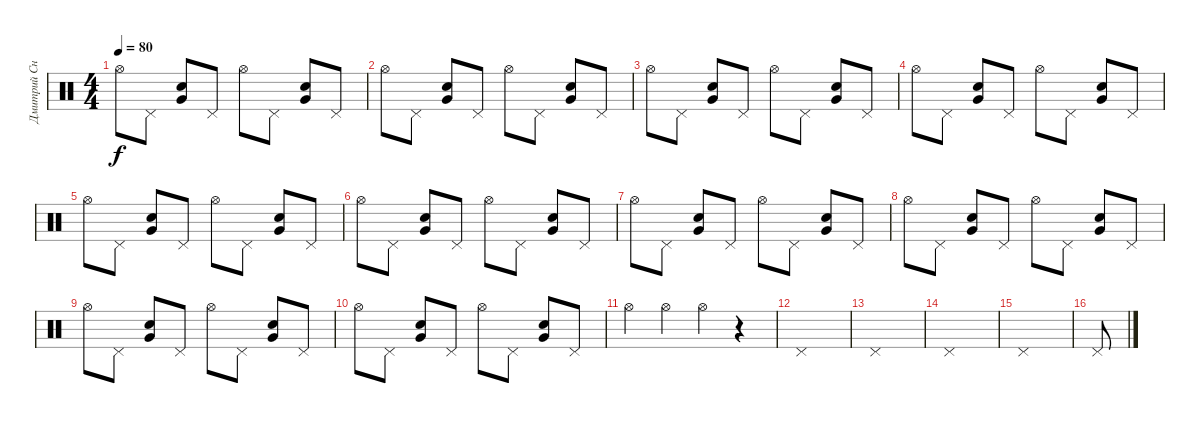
\track ("Дмитрий Снэйк" "Дмитрий Сн") {instrument percussion}
\staff {score}
\articulation defaults
\ts (4 4)
\tempo 80
\clef neutral
\ks c "Hi-Hat (open)".8{dy f} "Pedal Hi-Hat (hit)".8
("Snare (hit) 2" "Very Low Tom (hit)").8 "Pedal Hi-Hat (hit)".8 "Hi-Hat (open)".8 "Pedal Hi-Hat (hit)".8 ("Snare (hit) 2" "Very Low Tom (hit)").8 "Pedal Hi-Hat (hit)".8 |
"Hi-Hat (open)".8 "Pedal Hi-Hat (hit)".8 ("Snare (hit) 2" "Very Low Tom (hit)").8 "Pedal Hi-Hat (hit)".8 "Hi-Hat (open)".8 "Pedal Hi-Hat (hit)".8 ("Snare (hit) 2" "Very Low Tom (hit)").8 "Pedal Hi-Hat (hit)".8 |
"Hi-Hat (open)".8 "Pedal Hi-Hat (hit)".8 ("Snare (hit) 2" "Very Low Tom (hit)").8 "Pedal Hi-Hat (hit)".8 "Hi-Hat (open)".8 "Pedal Hi-Hat (hit)".8 ("Snare (hit) 2" "Very Low Tom (hit)").8 "Pedal Hi-Hat (hit)".8 |
"Hi-Hat (open)".8 "Pedal Hi-Hat (hit)".8 ("Snare (hit) 2" "Very Low Tom (hit)").8 "Pedal Hi-Hat (hit)".8 "Hi-Hat (open)".8 "Pedal Hi-Hat (hit)".8 ("Snare (hit) 2" "Very Low Tom (hit)").8 "Pedal Hi-Hat (hit)".8 |
"Hi-Hat (open)".8 "Pedal Hi-Hat (hit)".8 ("Snare (hit) 2" "Very Low Tom (hit)").8 "Pedal Hi-Hat (hit)".8 "Hi-Hat (open)".8 "Pedal Hi-Hat (hit)".8 ("Snare (hit) 2" "Very Low Tom (hit)").8 "Pedal Hi-Hat (hit)".8 |
"Hi-Hat (open)".8 "Pedal Hi-Hat (hit)".8 ("Snare (hit) 2" "Very Low Tom (hit)").8 "Pedal Hi-Hat (hit)".8 "Hi-Hat (open)".8 "Pedal Hi-Hat (hit)".8 ("Snare (hit) 2" "Very Low Tom (hit)").8 "Pedal Hi-Hat (hit)".8 |
"Hi-Hat (open)".8 "Pedal Hi-Hat (hit)".8 ("Snare (hit) 2" "Very Low Tom (hit)").8 "Pedal Hi-Hat (hit)".8 "Hi-Hat (open)".8 "Pedal Hi-Hat (hit)".8 ("Snare (hit) 2" "Very Low Tom (hit)").8 "Pedal Hi-Hat (hit)".8 |
"Hi-Hat (open)".8 "Pedal Hi-Hat (hit)".8 ("Snare (hit) 2" "Very Low Tom (hit)").8 "Pedal Hi-Hat (hit)".8 "Hi-Hat (open)".8 "Pedal Hi-Hat (hit)".8 ("Snare (hit) 2" "Very Low Tom (hit)").8 "Pedal Hi-Hat (hit)".8 |
"Hi-Hat (open)".8 "Pedal Hi-Hat (hit)".8 ("Snare (hit) 2" "Very Low Tom (hit)").8 "Pedal Hi-Hat (hit)".8 "Hi-Hat (open)".8 "Pedal Hi-Hat (hit)".8 ("Snare (hit) 2" "Very Low Tom (hit)").8 "Pedal Hi-Hat (hit)".8 |
"Hi-Hat (open)".8 "Pedal Hi-Hat (hit)".8 ("Snare (hit) 2" "Very Low Tom (hit)").8 "Pedal Hi-Hat (hit)".8 "Hi-Hat (open)".8 "Pedal Hi-Hat (hit)".8 ("Snare (hit) 2" "Very Low Tom (hit)").8 "Pedal Hi-Hat (hit)".8 |
"Hi-Hat (open)".4 "Hi-Hat (open)".4 "Hi-Hat (open)".4 r.4 |
"Pedal Hi-Hat (hit)".1 |
"Pedal Hi-Hat (hit)".1 |
"Pedal Hi-Hat (hit)".1 |
"Pedal Hi-Hat (hit)".1 |
"Pedal Hi-Hat (hit)".8
